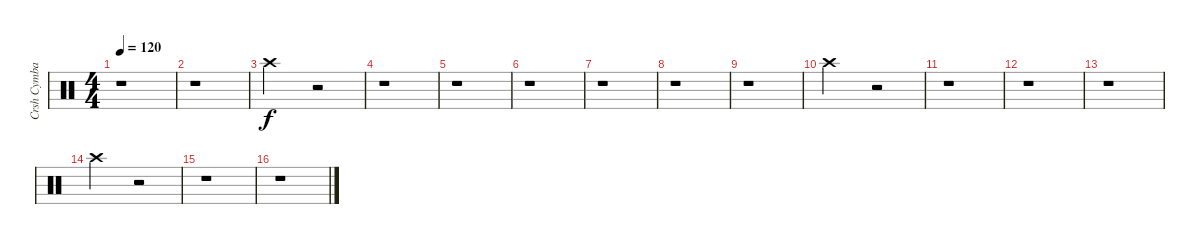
\track ("Crsh Cymbal         " "Crsh Cymba") {instrument percussion}
\staff {score}
\articulation defaults
\ts (4 4)
\tempo 120
\clef neutral
\ks c
r.1{dy f} |
r.1 |
"Crash high (hit)".2 r.2 |
r.1 |
r.1 |
r.1 |
r.1 |
r.1 |
r.1 |
"Crash high (hit)".2 r.2 |
r.1 |
r.1 |
r.1 |
"Crash high (hit)".2 r.2 |
r.1 |
r.1
